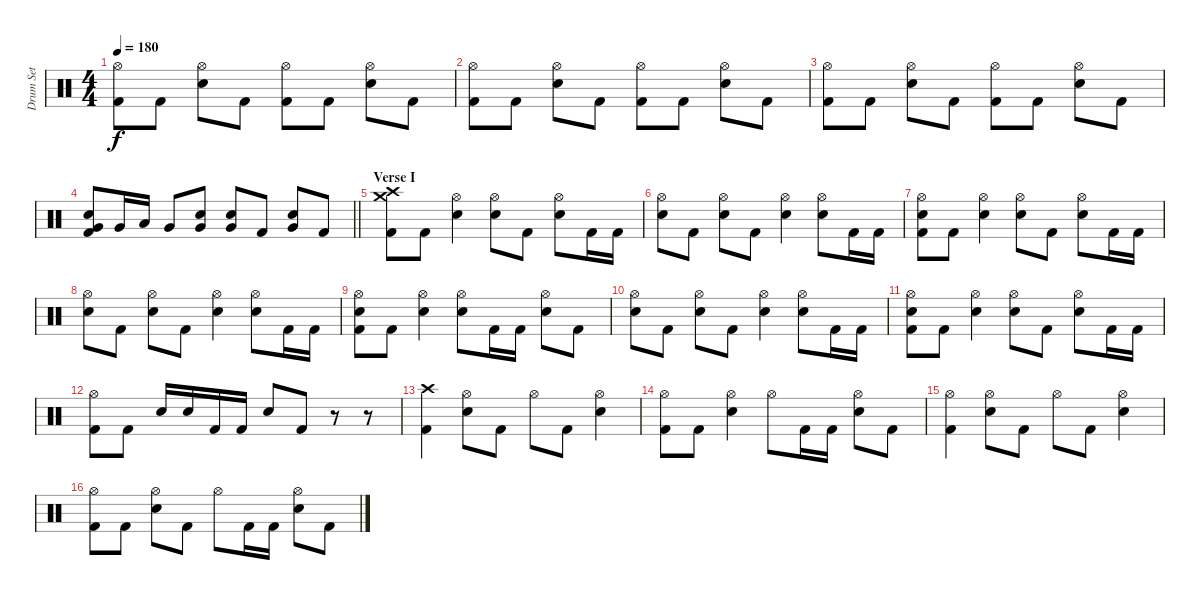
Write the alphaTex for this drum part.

\track ("Drum Set" "Drum Set") {instrument percussion}
\staff {score}
\articulation defaults
\ts (4 4)
\tempo 180
\clef neutral
\ks c
("Hi-Hat (open)" "Kick (hit) 2").8{dy f} "Kick (hit) 2".8 ("Hi-Hat (open)" "Snare (hit) 2").8 "Kick (hit) 2".8 ("Hi-Hat (open)" "Kick (hit) 2").8 "Kick (hit) 2".8 ("Hi-Hat (open)" "Snare (hit) 2").8 "Kick (hit) 2".8 |
("Hi-Hat (open)" "Kick (hit) 2").8 "Kick (hit) 2".8 ("Hi-Hat (open)" "Snare (hit) 2").8 "Kick (hit) 2".8 ("Hi-Hat (open)" "Kick (hit) 2").8 "Kick (hit) 2".8 ("Hi-Hat (open)" "Snare (hit) 2").8 "Kick (hit) 2".8 |
("Hi-Hat (open)" "Kick (hit) 2").8 "Kick (hit) 2".8 ("Hi-Hat (open)" "Snare (hit) 2").8 "Kick (hit) 2".8 ("Hi-Hat (open)" "Kick (hit) 2").8 "Kick (hit) 2".8 ("Hi-Hat (open)" "Snare (hit) 2").8 "Kick (hit) 2".8 |
\barLineRight lightlight
("Very Low Tom (hit)" "Snare (hit) 2" "Kick (hit) 2").8 "Very Low Tom (hit)".16 "Low Tom (hit)".16 "Very Low Tom (hit)".8 ("Snare (hit) 2" "Very Low Tom (hit)").8 ("Snare (hit) 2" "Very Low Tom (hit)").8 "Kick (hit) 2".8 ("Snare (hit) 2" "Very Low Tom (hit)").8 "Kick (hit) 2".8 |
\section ("" "Verse I")
("Crash high (hit)" "Crash medium (hit)" "Kick (hit) 2").8 "Kick (hit) 2".8 ("Hi-Hat (open)" "Snare (hit) 2").4 ("Hi-Hat (open)" "Snare (hit) 2").8 "Kick (hit) 2".8 ("Hi-Hat (open)" "Snare (hit) 2").8 "Kick (hit) 2".16 "Kick (hit) 2".16 |
("Hi-Hat (open)" "Snare (hit) 2").8 "Kick (hit) 2".8 ("Hi-Hat (open)" "Snare (hit) 2").8 "Kick (hit) 2".8 ("Hi-Hat (open)" "Snare (hit) 2").4 ("Hi-Hat (open)" "Snare (hit) 2").8 "Kick (hit) 2".16 "Kick (hit) 2".16 |
("Hi-Hat (open)" "Snare (hit) 2" "Kick (hit) 2").8 "Kick (hit) 2".8 ("Hi-Hat (open)" "Snare (hit) 2").4 ("Hi-Hat (open)" "Snare (hit) 2").8 "Kick (hit) 2".8 ("Hi-Hat (open)" "Snare (hit) 2").8 "Kick (hit) 2".16 "Kick (hit) 2".16 |
("Hi-Hat (open)" "Snare (hit) 2").8 "Kick (hit) 2".8 ("Hi-Hat (open)" "Snare (hit) 2").8 "Kick (hit) 2".8 ("Hi-Hat (open)" "Snare (hit) 2").4 ("Hi-Hat (open)" "Snare (hit) 2").8 "Kick (hit) 2".16 "Kick (hit) 2".16 |
("Hi-Hat (open)" "Snare (hit) 2" "Kick (hit) 2").8 "Kick (hit) 2".8 ("Hi-Hat (open)" "Snare (hit) 2").4 ("Hi-Hat (open)" "Snare (hit) 2").8 "Kick (hit) 2".16 "Kick (hit) 2".16 ("Hi-Hat (open)" "Snare (hit) 2").8 "Kick (hit) 2".8 |
("Hi-Hat (open)" "Snare (hit) 2").8 "Kick (hit) 2".8 ("Hi-Hat (open)" "Snare (hit) 2").8 "Kick (hit) 2".8 ("Hi-Hat (open)" "Snare (hit) 2").4 ("Hi-Hat (open)" "Snare (hit) 2").8 "Kick (hit) 2".16 "Kick (hit) 2".16 |
("Hi-Hat (open)" "Snare (hit) 2" "Kick (hit) 2").8 "Kick (hit) 2".8 ("Hi-Hat (open)" "Snare (hit) 2").4 ("Hi-Hat (open)" "Snare (hit) 2").8 "Kick (hit) 2".8 ("Hi-Hat (open)" "Snare (hit) 2").8 "Kick (hit) 2".16 "Kick (hit) 2".16 |
("Hi-Hat (open)" "Kick (hit) 2").8 "Kick (hit) 2".8 "Snare (hit) 2".16 "Snare (hit) 2".16 "Kick (hit) 2".16 "Kick (hit) 2".16 "Snare (hit) 2".8 "Kick (hit) 2".8 r.8 r.8 |
("Crash high (hit)" "Kick (hit) 2").4 ("Hi-Hat (open)" "Snare (hit) 2").8 "Kick (hit) 2".8 "Hi-Hat (open)".8 "Kick (hit) 2".8 ("Hi-Hat (open)" "Snare (hit) 2").4 |
("Hi-Hat (open)" "Kick (hit) 2").8 "Kick (hit) 2".8 ("Hi-Hat (open)" "Snare (hit) 2").4 "Hi-Hat (open)".8 "Kick (hit) 2".16 "Kick (hit) 2".16 ("Hi-Hat (open)" "Snare (hit) 2").8 "Kick (hit) 2".8 |
("Hi-Hat (open)" "Kick (hit) 2").4 ("Hi-Hat (open)" "Snare (hit) 2").8 "Kick (hit) 2".8 "Hi-Hat (open)".8 "Kick (hit) 2".8 ("Hi-Hat (open)" "Snare (hit) 2").4 |
("Hi-Hat (open)" "Kick (hit) 2").8 "Kick (hit) 2".8 ("Hi-Hat (open)" "Snare (hit) 2").8 "Kick (hit) 2".8 "Hi-Hat (open)".8 "Kick (hit) 2".16 "Kick (hit) 2".16 ("Hi-Hat (open)" "Snare (hit) 2").8 "Kick (hit) 2".8
